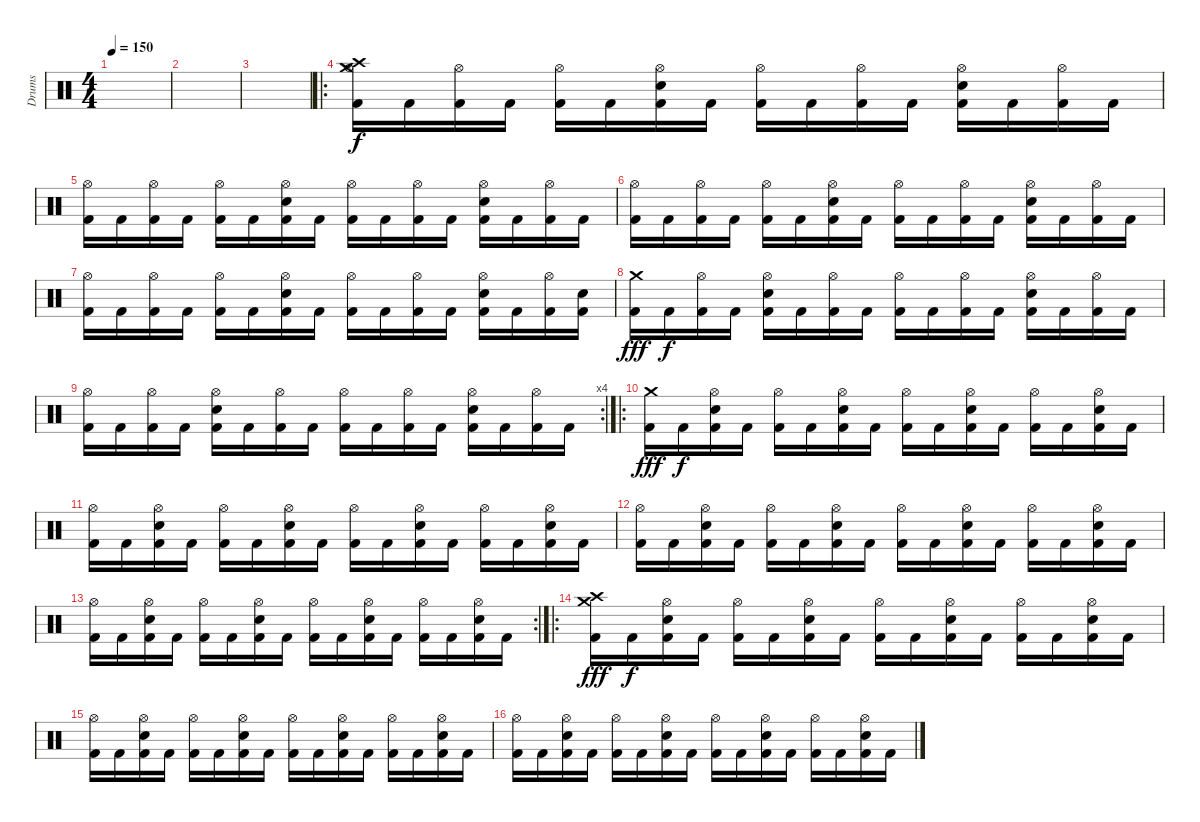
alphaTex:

\track ("Drums" "Drums") {instrument percussion}
\staff {score}
\articulation defaults
\ts (4 4)
\tempo 150
\clef neutral
\ks c
|
|
|
\ro
("Crash medium (hit)" "Crash high (hit)" "Hi-Hat (open)" "Kick (hit) 2").16 "Kick (hit) 2".16 ("Hi-Hat (open)" "Kick (hit) 2").16 "Kick (hit) 2".16 ("Hi-Hat (open)" "Kick (hit) 2").16 "Kick (hit) 2".16 ("Hi-Hat (open)" "Electric Snare (hit)" "Kick (hit) 2").16 "Kick (hit) 2".16 ("Hi-Hat (open)" "Kick (hit) 2").16 "Kick (hit) 2".16 ("Hi-Hat (open)" "Kick (hit) 2").16 "Kick (hit) 2".16 ("Hi-Hat (open)" "Electric Snare (hit)" "Kick (hit) 2").16 "Kick (hit) 2".16 ("Hi-Hat (open)" "Kick (hit) 2").16 "Kick (hit) 2".16 |
("Hi-Hat (open)" "Kick (hit) 2").16 "Kick (hit) 2".16 ("Hi-Hat (open)" "Kick (hit) 2").16 "Kick (hit) 2".16 ("Hi-Hat (open)" "Kick (hit) 2").16 "Kick (hit) 2".16 ("Hi-Hat (open)" "Electric Snare (hit)" "Kick (hit) 2").16 "Kick (hit) 2".16 ("Hi-Hat (open)" "Kick (hit) 2").16 "Kick (hit) 2".16 ("Hi-Hat (open)" "Kick (hit) 2").16 "Kick (hit) 2".16 ("Hi-Hat (open)" "Electric Snare (hit)" "Kick (hit) 2").16 "Kick (hit) 2".16 ("Hi-Hat (open)" "Kick (hit) 2").16 "Kick (hit) 2".16 |
("Hi-Hat (open)" "Kick (hit) 2").16 "Kick (hit) 2".16 ("Hi-Hat (open)" "Kick (hit) 2").16 "Kick (hit) 2".16 ("Hi-Hat (open)" "Kick (hit) 2").16 "Kick (hit) 2".16 ("Hi-Hat (open)" "Electric Snare (hit)" "Kick (hit) 2").16 "Kick (hit) 2".16 ("Hi-Hat (open)" "Kick (hit) 2").16 "Kick (hit) 2".16 ("Hi-Hat (open)" "Kick (hit) 2").16 "Kick (hit) 2".16 ("Hi-Hat (open)" "Electric Snare (hit)" "Kick (hit) 2").16 "Kick (hit) 2".16 ("Hi-Hat (open)" "Kick (hit) 2").16 "Kick (hit) 2".16 |
("Hi-Hat (open)" "Kick (hit) 2").16 "Kick (hit) 2".16 ("Hi-Hat (open)" "Kick (hit) 2").16 "Kick (hit) 2".16 ("Hi-Hat (open)" "Kick (hit) 2").16 "Kick (hit) 2".16 ("Hi-Hat (open)" "Electric Snare (hit)" "Kick (hit) 2").16 "Kick (hit) 2".16 ("Hi-Hat (open)" "Kick (hit) 2").16 "Kick (hit) 2".16 ("Hi-Hat (open)" "Kick (hit) 2").16 "Kick (hit) 2".16 ("Hi-Hat (open)" "Electric Snare (hit)" "Kick (hit) 2").16 "Kick (hit) 2".16 ("Hi-Hat (open)" "Kick (hit) 2").16 ("Electric Snare (hit)" "Kick (hit) 2").16 |
("Crash medium (hit)" "Kick (hit) 2").16{dy fff} "Kick (hit) 2".16{dy f} ("Hi-Hat (open)" "Kick (hit) 2").16 "Kick (hit) 2".16 ("Hi-Hat (open)" "Electric Snare (hit)" "Kick (hit) 2").16 "Kick (hit) 2".16 ("Hi-Hat (open)" "Kick (hit) 2").16 "Kick (hit) 2".16 ("Hi-Hat (open)" "Kick (hit) 2").16 "Kick (hit) 2".16 ("Hi-Hat (open)" "Kick (hit) 2").16 "Kick (hit) 2".16 ("Hi-Hat (open)" "Electric Snare (hit)" "Kick (hit) 2").16 "Kick (hit) 2".16 ("Hi-Hat (open)" "Kick (hit) 2").16 "Kick (hit) 2".16 |
\rc 4
("Hi-Hat (open)" "Kick (hit) 2").16 "Kick (hit) 2".16 ("Hi-Hat (open)" "Kick (hit) 2").16 "Kick (hit) 2".16 ("Hi-Hat (open)" "Electric Snare (hit)" "Kick (hit) 2").16 "Kick (hit) 2".16 ("Hi-Hat (open)" "Kick (hit) 2").16 "Kick (hit) 2".16 ("Hi-Hat (open)" "Kick (hit) 2").16 "Kick (hit) 2".16 ("Hi-Hat (open)" "Kick (hit) 2").16 "Kick (hit) 2".16 ("Hi-Hat (open)" "Electric Snare (hit)" "Kick (hit) 2").16 "Kick (hit) 2".16 ("Hi-Hat (open)" "Kick (hit) 2").16 "Kick (hit) 2".16 |
\ro
("Crash medium (hit)" "Kick (hit) 2").16{dy fff} "Kick (hit) 2".16{dy f} ("Hi-Hat (open)" "Electric Snare (hit)" "Kick (hit) 2").16 "Kick (hit) 2".16 ("Hi-Hat (open)" "Kick (hit) 2").16 "Kick (hit) 2".16 ("Hi-Hat (open)" "Electric Snare (hit)" "Kick (hit) 2").16 "Kick (hit) 2".16 ("Hi-Hat (open)" "Kick (hit) 2").16 "Kick (hit) 2".16 ("Hi-Hat (open)" "Electric Snare (hit)" "Kick (hit) 2").16 "Kick (hit) 2".16 ("Hi-Hat (open)" "Kick (hit) 2").16 "Kick (hit) 2".16 ("Hi-Hat (open)" "Electric Snare (hit)" "Kick (hit) 2").16 "Kick (hit) 2".16 |
("Hi-Hat (open)" "Kick (hit) 2").16 "Kick (hit) 2".16 ("Hi-Hat (open)" "Electric Snare (hit)" "Kick (hit) 2").16 "Kick (hit) 2".16 ("Hi-Hat (open)" "Kick (hit) 2").16 "Kick (hit) 2".16 ("Hi-Hat (open)" "Electric Snare (hit)" "Kick (hit) 2").16 "Kick (hit) 2".16 ("Hi-Hat (open)" "Kick (hit) 2").16 "Kick (hit) 2".16 ("Hi-Hat (open)" "Electric Snare (hit)" "Kick (hit) 2").16 "Kick (hit) 2".16 ("Hi-Hat (open)" "Kick (hit) 2").16 "Kick (hit) 2".16 ("Hi-Hat (open)" "Electric Snare (hit)" "Kick (hit) 2").16 "Kick (hit) 2".16 |
("Hi-Hat (open)" "Kick (hit) 2").16 "Kick (hit) 2".16 ("Hi-Hat (open)" "Electric Snare (hit)" "Kick (hit) 2").16 "Kick (hit) 2".16 ("Hi-Hat (open)" "Kick (hit) 2").16 "Kick (hit) 2".16 ("Hi-Hat (open)" "Electric Snare (hit)" "Kick (hit) 2").16 "Kick (hit) 2".16 ("Hi-Hat (open)" "Kick (hit) 2").16 "Kick (hit) 2".16 ("Hi-Hat (open)" "Electric Snare (hit)" "Kick (hit) 2").16 "Kick (hit) 2".16 ("Hi-Hat (open)" "Kick (hit) 2").16 "Kick (hit) 2".16 ("Hi-Hat (open)" "Electric Snare (hit)" "Kick (hit) 2").16 "Kick (hit) 2".16 |
\rc 2
("Hi-Hat (open)" "Kick (hit) 2").16 "Kick (hit) 2".16 ("Hi-Hat (open)" "Electric Snare (hit)" "Kick (hit) 2").16 "Kick (hit) 2".16 ("Hi-Hat (open)" "Kick (hit) 2").16 "Kick (hit) 2".16 ("Hi-Hat (open)" "Electric Snare (hit)" "Kick (hit) 2").16 "Kick (hit) 2".16 ("Hi-Hat (open)" "Kick (hit) 2").16 "Kick (hit) 2".16 ("Hi-Hat (open)" "Electric Snare (hit)" "Kick (hit) 2").16 "Kick (hit) 2".16 ("Hi-Hat (open)" "Kick (hit) 2").16 "Kick (hit) 2".16 ("Hi-Hat (open)" "Electric Snare (hit)" "Kick (hit) 2").16 "Kick (hit) 2".16 |
\ro
("Crash medium (hit)" "Crash high (hit)" "Kick (hit) 2").16{dy fff} "Kick (hit) 2".16{dy f} ("Hi-Hat (open)" "Electric Snare (hit)" "Kick (hit) 2").16 "Kick (hit) 2".16 ("Hi-Hat (open)" "Kick (hit) 2").16 "Kick (hit) 2".16 ("Hi-Hat (open)" "Electric Snare (hit)" "Kick (hit) 2").16 "Kick (hit) 2".16 ("Hi-Hat (open)" "Kick (hit) 2").16 "Kick (hit) 2".16 ("Hi-Hat (open)" "Electric Snare (hit)" "Kick (hit) 2").16 "Kick (hit) 2".16 ("Hi-Hat (open)" "Kick (hit) 2").16 "Kick (hit) 2".16 ("Hi-Hat (open)" "Electric Snare (hit)" "Kick (hit) 2").16 "Kick (hit) 2".16 |
("Hi-Hat (open)" "Kick (hit) 2").16 "Kick (hit) 2".16 ("Hi-Hat (open)" "Electric Snare (hit)" "Kick (hit) 2").16 "Kick (hit) 2".16 ("Hi-Hat (open)" "Kick (hit) 2").16 "Kick (hit) 2".16 ("Hi-Hat (open)" "Electric Snare (hit)" "Kick (hit) 2").16 "Kick (hit) 2".16 ("Hi-Hat (open)" "Kick (hit) 2").16 "Kick (hit) 2".16 ("Hi-Hat (open)" "Electric Snare (hit)" "Kick (hit) 2").16 "Kick (hit) 2".16 ("Hi-Hat (open)" "Kick (hit) 2").16 "Kick (hit) 2".16 ("Hi-Hat (open)" "Electric Snare (hit)" "Kick (hit) 2").16 "Kick (hit) 2".16 |
("Hi-Hat (open)" "Kick (hit) 2").16 "Kick (hit) 2".16 ("Hi-Hat (open)" "Electric Snare (hit)" "Kick (hit) 2").16 "Kick (hit) 2".16 ("Hi-Hat (open)" "Kick (hit) 2").16 "Kick (hit) 2".16 ("Hi-Hat (open)" "Electric Snare (hit)" "Kick (hit) 2").16 "Kick (hit) 2".16 ("Hi-Hat (open)" "Kick (hit) 2").16 "Kick (hit) 2".16 ("Hi-Hat (open)" "Electric Snare (hit)" "Kick (hit) 2").16 "Kick (hit) 2".16 ("Hi-Hat (open)" "Kick (hit) 2").16 "Kick (hit) 2".16 ("Hi-Hat (open)" "Electric Snare (hit)" "Kick (hit) 2").16 "Kick (hit) 2".16
